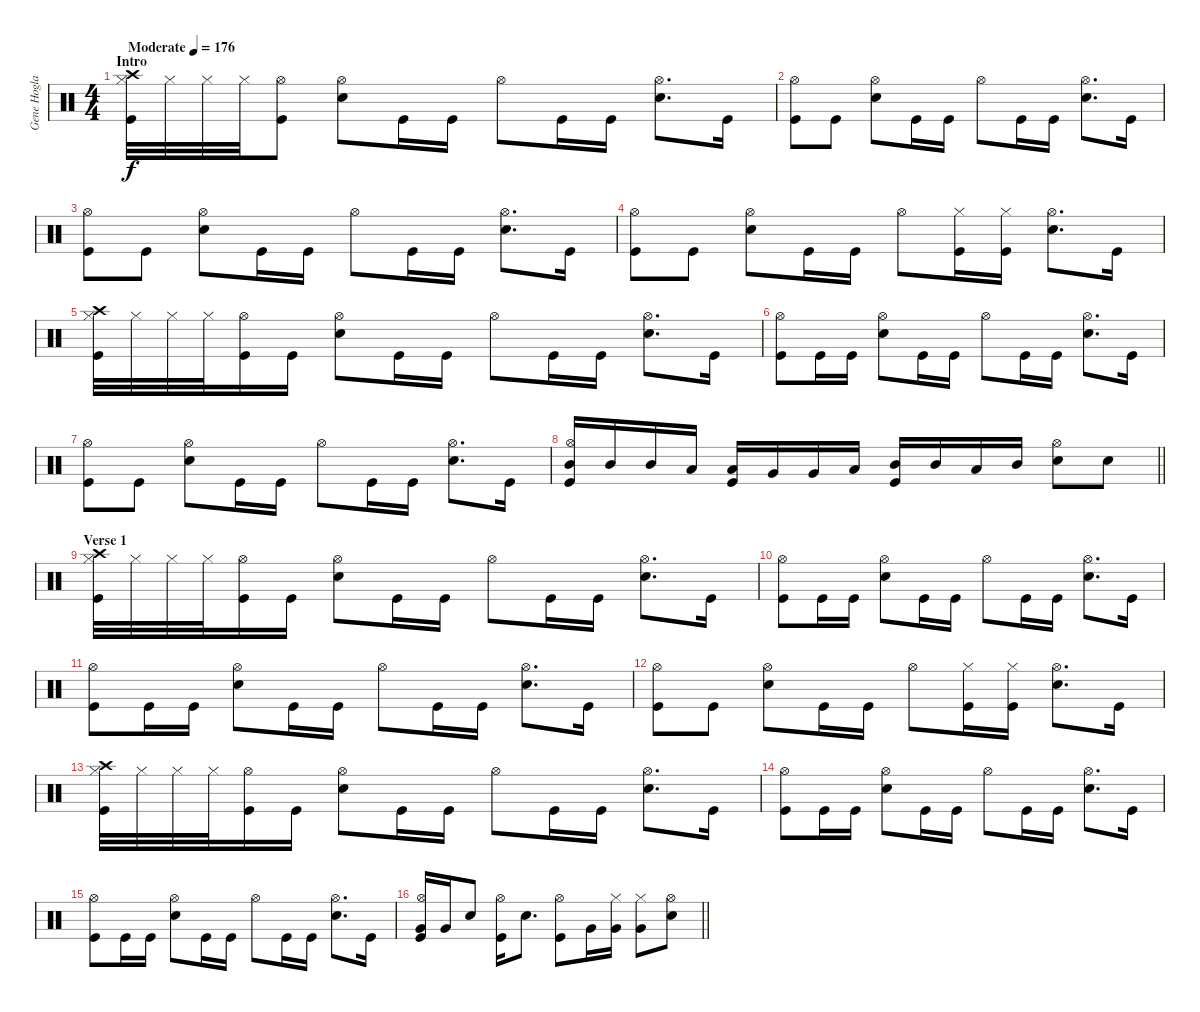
\track ("Gene Hoglan " "Gene Hogla") {instrument percussion}
\staff {score}
\articulation defaults
\ts (4 4)
\section ("" "Intro")
\tempo (176 "Moderate")
\clef neutral
\ks c
("Hi-Hat (closed)" "Crash high (hit)" "Kick (hit)").32{dy f} "Hi-Hat (closed)".32 "Hi-Hat (closed)".32 "Hi-Hat (closed)".32 ("Hi-Hat (open)" "Kick (hit)").8 ("Hi-Hat (open)" "Snare (hit) 2").8 "Kick (hit)".16 "Kick (hit)".16 "Hi-Hat (open)".8 "Kick (hit)".16 "Kick (hit)".16 ("Hi-Hat (open)" "Snare (hit) 2").8{d} "Kick (hit)".16 |
("Hi-Hat (open)" "Kick (hit)").8 "Kick (hit)".8 ("Hi-Hat (open)" "Snare (hit) 2").8 "Kick (hit)".16 "Kick (hit)".16 "Hi-Hat (open)".8 "Kick (hit)".16 "Kick (hit)".16 ("Hi-Hat (open)" "Snare (hit) 2").8{d} "Kick (hit)".16 |
("Hi-Hat (open)" "Kick (hit)").8 "Kick (hit)".8 ("Hi-Hat (open)" "Snare (hit) 2").8 "Kick (hit)".16 "Kick (hit)".16 "Hi-Hat (open)".8 "Kick (hit)".16 "Kick (hit)".16 ("Hi-Hat (open)" "Snare (hit) 2").8{d} "Kick (hit)".16 |
("Hi-Hat (open)" "Kick (hit)").8 "Kick (hit)".8 ("Hi-Hat (open)" "Snare (hit) 2").8 "Kick (hit)".16 "Kick (hit)".16 "Hi-Hat (open)".8 ("Hi-Hat (closed)" "Kick (hit)").16 ("Hi-Hat (closed)" "Kick (hit)").16 ("Hi-Hat (open)" "Snare (hit) 2").8{d} "Kick (hit)".16 |
("Hi-Hat (closed)" "Crash high (hit)" "Kick (hit)").32 "Hi-Hat (closed)".32 "Hi-Hat (closed)".32 "Hi-Hat (closed)".32 ("Hi-Hat (open)" "Kick (hit)").16 "Kick (hit)".16 ("Hi-Hat (open)" "Snare (hit) 2").8 "Kick (hit)".16 "Kick (hit)".16 "Hi-Hat (open)".8 "Kick (hit)".16 "Kick (hit)".16 ("Hi-Hat (open)" "Snare (hit) 2").8{d} "Kick (hit)".16 |
("Hi-Hat (open)" "Kick (hit)").8 "Kick (hit)".16 "Kick (hit)".16 ("Hi-Hat (open)" "Snare (hit) 2").8 "Kick (hit)".16 "Kick (hit)".16 "Hi-Hat (open)".8 "Kick (hit)".16 "Kick (hit)".16 ("Hi-Hat (open)" "Snare (hit) 2").8{d} "Kick (hit)".16 |
("Hi-Hat (open)" "Kick (hit)").8 "Kick (hit)".8 ("Hi-Hat (open)" "Snare (hit) 2").8 "Kick (hit)".16 "Kick (hit)".16 "Hi-Hat (open)".8 "Kick (hit)".16 "Kick (hit)".16 ("Hi-Hat (open)" "Snare (hit) 2").8{d} "Kick (hit)".16 |
\barLineRight lightlight
("Hi-Hat (open)" "Mid Tom (hit)" "Kick (hit)").16 "Mid Tom (hit)".16 "Mid Tom (hit)".16 "Low Tom (hit)".16 ("Low Tom (hit)" "Kick (hit)").16 "Very Low Tom (hit)".16 "Very Low Tom (hit)".16 "Low Tom (hit)".16 ("Mid Tom (hit)" "Kick (hit)").16 "Mid Tom (hit)".16 "Low Tom (hit)".16 "Mid Tom (hit)".16 ("Hi-Hat (open)" "Snare (hit) 2").8 "Snare (hit) 2".8 |
\section ("" "Verse 1")
("Hi-Hat (closed)" "Crash high (hit)" "Kick (hit)").32 "Hi-Hat (closed)".32 "Hi-Hat (closed)".32 "Hi-Hat (closed)".32 ("Hi-Hat (open)" "Kick (hit)").16 "Kick (hit)".16 ("Hi-Hat (open)" "Snare (hit) 2").8 "Kick (hit)".16 "Kick (hit)".16 "Hi-Hat (open)".8 "Kick (hit)".16 "Kick (hit)".16 ("Hi-Hat (open)" "Snare (hit) 2").8{d} "Kick (hit)".16 |
("Hi-Hat (open)" "Kick (hit)").8 "Kick (hit)".16 "Kick (hit)".16 ("Hi-Hat (open)" "Snare (hit) 2").8 "Kick (hit)".16 "Kick (hit)".16 "Hi-Hat (open)".8 "Kick (hit)".16 "Kick (hit)".16 ("Hi-Hat (open)" "Snare (hit) 2").8{d} "Kick (hit)".16 |
("Hi-Hat (open)" "Kick (hit)").8 "Kick (hit)".16 "Kick (hit)".16 ("Hi-Hat (open)" "Snare (hit) 2").8 "Kick (hit)".16 "Kick (hit)".16 "Hi-Hat (open)".8 "Kick (hit)".16 "Kick (hit)".16 ("Hi-Hat (open)" "Snare (hit) 2").8{d} "Kick (hit)".16 |
("Hi-Hat (open)" "Kick (hit)").8 "Kick (hit)".8 ("Hi-Hat (open)" "Snare (hit) 2").8 "Kick (hit)".16 "Kick (hit)".16 "Hi-Hat (open)".8 ("Hi-Hat (closed)" "Kick (hit)").16 ("Hi-Hat (closed)" "Kick (hit)").16 ("Hi-Hat (open)" "Snare (hit) 2").8{d} "Kick (hit)".16 |
("Hi-Hat (closed)" "Crash high (hit)" "Kick (hit)").32 "Hi-Hat (closed)".32 "Hi-Hat (closed)".32 "Hi-Hat (closed)".32 ("Hi-Hat (open)" "Kick (hit)").16 "Kick (hit)".16 ("Hi-Hat (open)" "Snare (hit) 2").8 "Kick (hit)".16 "Kick (hit)".16 "Hi-Hat (open)".8 "Kick (hit)".16 "Kick (hit)".16 ("Hi-Hat (open)" "Snare (hit) 2").8{d} "Kick (hit)".16 |
("Hi-Hat (open)" "Kick (hit)").8 "Kick (hit)".16 "Kick (hit)".16 ("Hi-Hat (open)" "Snare (hit) 2").8 "Kick (hit)".16 "Kick (hit)".16 "Hi-Hat (open)".8 "Kick (hit)".16 "Kick (hit)".16 ("Hi-Hat (open)" "Snare (hit) 2").8{d} "Kick (hit)".16 |
("Hi-Hat (open)" "Kick (hit)").8 "Kick (hit)".16 "Kick (hit)".16 ("Hi-Hat (open)" "Snare (hit) 2").8 "Kick (hit)".16 "Kick (hit)".16 "Hi-Hat (open)".8 "Kick (hit)".16 "Kick (hit)".16 ("Hi-Hat (open)" "Snare (hit) 2").8{d} "Kick (hit)".16 |
\barLineRight lightlight
("Hi-Hat (open)" "Very Low Tom (hit)" "Kick (hit)").16 "Very Low Tom (hit)".16 "Snare (hit) 2".8 ("Hi-Hat (open)" "Kick (hit)").16 "Snare (hit) 2".8{d} ("Hi-Hat (open)" "Kick (hit)").8 "Very Low Tom (hit)".16 ("Hi-Hat (closed)" "Very Low Tom (hit)").16 ("Hi-Hat (closed)" "Very Low Tom (hit)").8 ("Hi-Hat (open)" "Snare (hit) 2").8
